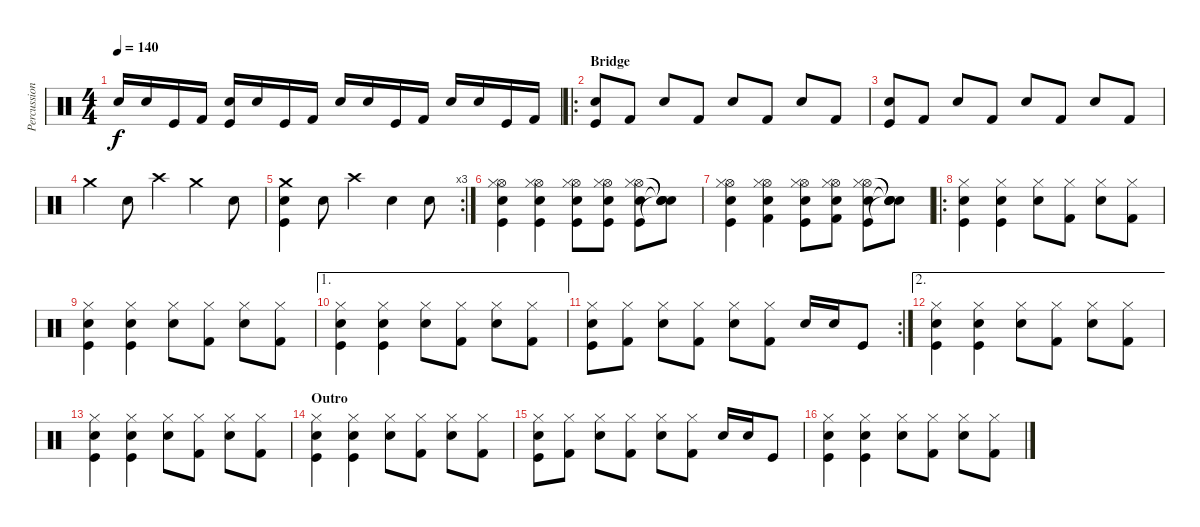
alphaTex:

\track ("Percussion" "Percussion") {instrument percussion}
\staff {score}
\articulation defaults
\ts (4 4)
\tempo 140
\clef neutral
\ks c "Snare (hit) 2".16{dy f} "Snare (hit) 2".16 "Kick (hit)".16 "Kick (hit) 2".16
("Snare (hit) 2" "Kick (hit)").16 "Snare (hit) 2".16 "Kick (hit)".16 "Kick (hit) 2".16 "Snare (hit) 2".16 "Snare (hit) 2".16 "Kick (hit)".16 "Kick (hit) 2".16 "Snare (hit) 2".16 "Snare (hit) 2".16 "Kick (hit)".16 "Kick (hit) 2".16 |
\ro
\section ("" "Bridge")
("Snare (hit) 2" "Kick (hit)").8 "Kick (hit) 2".8 "Snare (hit) 2".8 "Kick (hit) 2".8 "Snare (hit) 2".8 "Kick (hit) 2".8 "Snare (hit) 2".8 "Kick (hit) 2".8 |
("Snare (hit) 2" "Kick (hit)").8 "Kick (hit) 2".8 "Snare (hit) 2".8 "Kick (hit) 2".8 "Snare (hit) 2".8 "Kick (hit) 2".8 "Snare (hit) 2".8 "Kick (hit) 2".8 |
"Crash medium (hit)".4 "Snare (hit) 2".8 "Crash high (hit)".4 "Crash medium (hit)".4 "Snare (hit) 2".8 |
\rc 3
("Crash medium (hit)" "Snare (hit) 2" "Kick (hit)").4 "Snare (hit) 2".8 "Crash high (hit)".4 "Snare (hit) 2".4 "Snare (hit) 2".8 |
("Hi-Hat (open)" "Hi-Hat (closed)" "Snare (hit) 2" "Kick (hit)").4 ("Hi-Hat (open)" "Hi-Hat (closed)" "Snare (hit) 2" "Kick (hit)").4 ("Hi-Hat (open)" "Hi-Hat (closed)" "Snare (hit) 2" "Kick (hit)").8 ("Hi-Hat (open)" "Hi-Hat (closed)" "Snare (hit) 2" "Kick (hit)").8 ("Hi-Hat (open)" "Hi-Hat (closed)" "Snare (hit) 2" "Kick (hit)").8 ("Snare (hit)"{t} "Snare (hit)"{t} "Snare (hit)"{t} "Snare (hit)"{t}).8 |
("Hi-Hat (open)" "Hi-Hat (closed)" "Snare (hit) 2" "Kick (hit)").4 ("Hi-Hat (open)" "Hi-Hat (closed)" "Snare (hit) 2" "Kick (hit) 2").4 ("Hi-Hat (open)" "Hi-Hat (closed)" "Snare (hit) 2" "Kick (hit)").8 ("Hi-Hat (open)" "Hi-Hat (closed)" "Snare (hit) 2" "Kick (hit) 2").8 ("Hi-Hat (open)" "Hi-Hat (closed)" "Snare (hit) 2" "Kick (hit)").8 ("Snare (hit)"{t} "Snare (hit)"{t} "Snare (hit)"{t} "Snare (hit)"{t}).8 |
\ro
("Hi-Hat (closed)" "Snare (hit) 2" "Kick (hit)").4 ("Hi-Hat (closed)" "Snare (hit) 2" "Kick (hit)").4 ("Hi-Hat (closed)" "Snare (hit) 2").8 ("Hi-Hat (closed)" "Kick (hit) 2").8 ("Hi-Hat (closed)" "Snare (hit) 2").8 ("Hi-Hat (closed)" "Kick (hit) 2").8 |
("Hi-Hat (closed)" "Snare (hit) 2" "Kick (hit)").4 ("Hi-Hat (closed)" "Snare (hit) 2" "Kick (hit)").4 ("Hi-Hat (closed)" "Snare (hit) 2").8 ("Hi-Hat (closed)" "Kick (hit) 2").8 ("Hi-Hat (closed)" "Snare (hit) 2").8 ("Hi-Hat (closed)" "Kick (hit) 2").8 |
\ae 1
("Hi-Hat (closed)" "Snare (hit) 2" "Kick (hit)").4 ("Hi-Hat (closed)" "Snare (hit) 2" "Kick (hit)").4 ("Hi-Hat (closed)" "Snare (hit) 2").8 ("Hi-Hat (closed)" "Kick (hit) 2").8 ("Hi-Hat (closed)" "Snare (hit) 2").8 ("Hi-Hat (closed)" "Kick (hit) 2").8 |
\rc 2
("Hi-Hat (closed)" "Snare (hit) 2" "Kick (hit)").8 ("Hi-Hat (closed)" "Kick (hit) 2").8 ("Hi-Hat (closed)" "Snare (hit) 2").8 ("Hi-Hat (closed)" "Kick (hit) 2").8 ("Hi-Hat (closed)" "Snare (hit) 2").8 ("Hi-Hat (closed)" "Kick (hit) 2").8 "Snare (hit) 2".16 "Snare (hit) 2".16 "Kick (hit)".8 |
\ae 2
("Hi-Hat (closed)" "Snare (hit) 2" "Kick (hit)").4 ("Hi-Hat (closed)" "Snare (hit) 2" "Kick (hit)").4 ("Hi-Hat (closed)" "Snare (hit) 2").8 ("Hi-Hat (closed)" "Kick (hit) 2").8 ("Hi-Hat (closed)" "Snare (hit) 2").8 ("Hi-Hat (closed)" "Kick (hit) 2").8 |
("Hi-Hat (closed)" "Snare (hit) 2" "Kick (hit)").4 ("Hi-Hat (closed)" "Snare (hit) 2" "Kick (hit)").4 ("Hi-Hat (closed)" "Snare (hit) 2").8 ("Hi-Hat (closed)" "Kick (hit) 2").8 ("Hi-Hat (closed)" "Snare (hit) 2").8 ("Hi-Hat (closed)" "Kick (hit) 2").8 |
\section ("" "Outro")
("Hi-Hat (closed)" "Snare (hit) 2" "Kick (hit)").4 ("Hi-Hat (closed)" "Snare (hit) 2" "Kick (hit)").4 ("Hi-Hat (closed)" "Snare (hit) 2").8 ("Hi-Hat (closed)" "Kick (hit) 2").8 ("Hi-Hat (closed)" "Snare (hit) 2").8 ("Hi-Hat (closed)" "Kick (hit) 2").8 |
("Hi-Hat (closed)" "Snare (hit) 2" "Kick (hit)").8 ("Hi-Hat (closed)" "Kick (hit) 2").8 ("Hi-Hat (closed)" "Snare (hit) 2").8 ("Hi-Hat (closed)" "Kick (hit) 2").8 ("Hi-Hat (closed)" "Snare (hit) 2").8 ("Hi-Hat (closed)" "Kick (hit) 2").8 "Snare (hit) 2".16 "Snare (hit) 2".16 "Kick (hit)".8 |
("Hi-Hat (closed)" "Snare (hit) 2" "Kick (hit)").4 ("Hi-Hat (closed)" "Snare (hit) 2" "Kick (hit)").4 ("Hi-Hat (closed)" "Snare (hit) 2").8 ("Hi-Hat (closed)" "Kick (hit) 2").8 ("Hi-Hat (closed)" "Snare (hit) 2").8 ("Hi-Hat (closed)" "Kick (hit) 2").8
